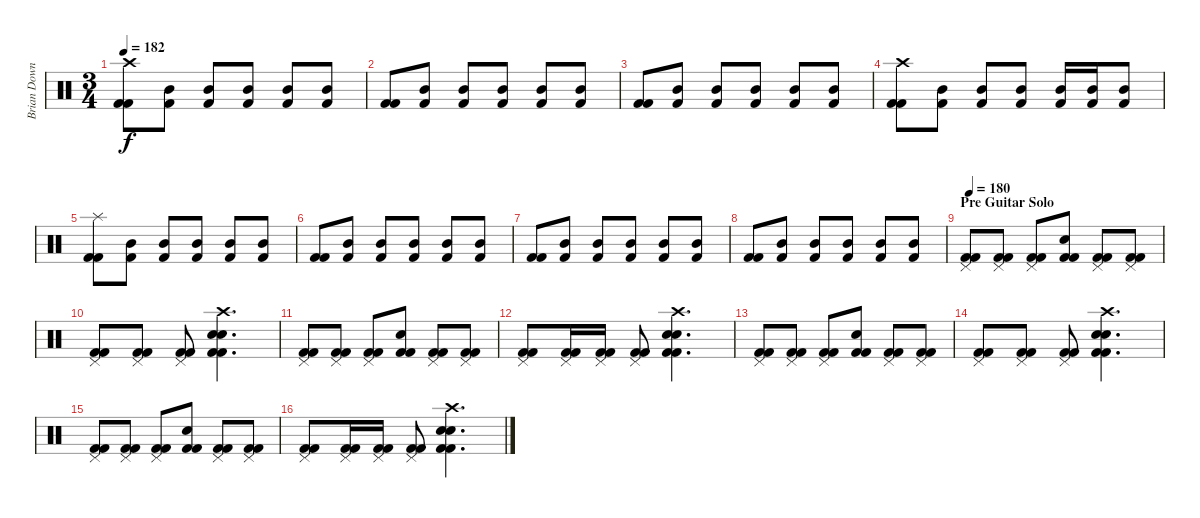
\track ("Brian Downey" "Brian Down") {instrument percussion}
\staff {score}
\articulation defaults
\ts (3 4)
\tempo 182
\clef neutral
\ks c
("Crash high (hit)" "Kick (hit) 2" "Kick (hit) 2").8{dy f} ("Mid Tom (hit)" "Kick (hit) 2").8 ("Mid Tom (hit)" "Kick (hit) 2").8 ("Mid Tom (hit)" "Kick (hit) 2").8 ("Mid Tom (hit)" "Kick (hit) 2").8 ("Mid Tom (hit)" "Kick (hit) 2").8 |
("Kick (hit) 2" "Kick (hit) 2").8 ("Mid Tom (hit)" "Kick (hit) 2").8 ("Mid Tom (hit)" "Kick (hit) 2").8 ("Mid Tom (hit)" "Kick (hit) 2").8 ("Mid Tom (hit)" "Kick (hit) 2").8 ("Mid Tom (hit)" "Kick (hit) 2").8 |
("Kick (hit) 2" "Kick (hit) 2").8 ("Mid Tom (hit)" "Kick (hit) 2").8 ("Mid Tom (hit)" "Kick (hit) 2").8 ("Mid Tom (hit)" "Kick (hit) 2").8 ("Mid Tom (hit)" "Kick (hit) 2").8 ("Mid Tom (hit)" "Kick (hit) 2").8 |
("Crash high (hit)" "Kick (hit) 2" "Kick (hit) 2").8 ("Mid Tom (hit)" "Kick (hit) 2").8 ("Mid Tom (hit)" "Kick (hit) 2").8 ("Mid Tom (hit)" "Kick (hit) 2").8 ("Mid Tom (hit)" "Kick (hit) 2").16 ("Mid Tom (hit)" "Kick (hit) 2").16 ("Mid Tom (hit)" "Kick (hit) 2").8 |
("Splash (hit)" "Kick (hit) 2" "Kick (hit) 2").8 ("Mid Tom (hit)" "Kick (hit) 2").8 ("Mid Tom (hit)" "Kick (hit) 2").8 ("Mid Tom (hit)" "Kick (hit) 2").8 ("Mid Tom (hit)" "Kick (hit) 2").8 ("Mid Tom (hit)" "Kick (hit) 2").8 |
("Kick (hit) 2" "Kick (hit) 2").8 ("Mid Tom (hit)" "Kick (hit) 2").8 ("Mid Tom (hit)" "Kick (hit) 2").8 ("Mid Tom (hit)" "Kick (hit) 2").8 ("Mid Tom (hit)" "Kick (hit) 2").8 ("Mid Tom (hit)" "Kick (hit) 2").8 |
("Kick (hit) 2" "Kick (hit) 2").8 ("Mid Tom (hit)" "Kick (hit) 2").8 ("Mid Tom (hit)" "Kick (hit) 2").8 ("Mid Tom (hit)" "Kick (hit) 2").8 ("Mid Tom (hit)" "Kick (hit) 2").8 ("Mid Tom (hit)" "Kick (hit) 2").8 |
("Kick (hit) 2" "Kick (hit) 2").8 ("Mid Tom (hit)" "Kick (hit) 2").8 ("Mid Tom (hit)" "Kick (hit) 2").8 ("Mid Tom (hit)" "Kick (hit) 2").8 ("Mid Tom (hit)" "Kick (hit) 2").8 ("Mid Tom (hit)" "Kick (hit) 2").8 |
\section ("" "Pre Guitar Solo")
\tempo 180
("Pedal Hi-Hat (hit)" "Kick (hit) 2" "Kick (hit) 2").8 ("Pedal Hi-Hat (hit)" "Kick (hit) 2" "Kick (hit) 2").8 ("Pedal Hi-Hat (hit)" "Kick (hit) 2" "Kick (hit) 2").8 ("Snare (hit) 2" "Kick (hit) 2" "Kick (hit) 2").8 ("Pedal Hi-Hat (hit)" "Kick (hit) 2" "Kick (hit) 2").8 ("Pedal Hi-Hat (hit)" "Kick (hit) 2" "Kick (hit) 2").8 |
("Pedal Hi-Hat (hit)" "Kick (hit) 2" "Kick (hit) 2").8 ("Pedal Hi-Hat (hit)" "Kick (hit) 2" "Kick (hit) 2").8 ("Pedal Hi-Hat (hit)" "Kick (hit) 2" "Kick (hit) 2").8 ("Crash high (hit)" "Electric Snare (hit)" "Snare (hit) 2" "Kick (hit) 2" "Kick (hit) 2").4{d} |
("Pedal Hi-Hat (hit)" "Kick (hit) 2" "Kick (hit) 2").8 ("Pedal Hi-Hat (hit)" "Kick (hit) 2" "Kick (hit) 2").8 ("Pedal Hi-Hat (hit)" "Kick (hit) 2" "Kick (hit) 2").8 ("Snare (hit) 2" "Kick (hit) 2" "Kick (hit) 2").8 ("Pedal Hi-Hat (hit)" "Kick (hit) 2" "Kick (hit) 2").8 ("Pedal Hi-Hat (hit)" "Kick (hit) 2" "Kick (hit) 2").8 |
("Pedal Hi-Hat (hit)" "Kick (hit) 2" "Kick (hit) 2").8 ("Pedal Hi-Hat (hit)" "Kick (hit) 2" "Kick (hit) 2").16 ("Pedal Hi-Hat (hit)" "Kick (hit) 2" "Kick (hit) 2").16 ("Pedal Hi-Hat (hit)" "Kick (hit) 2" "Kick (hit) 2").8 ("Crash high (hit)" "Electric Snare (hit)" "Snare (hit) 2" "Kick (hit) 2" "Kick (hit) 2").4{d} |
("Pedal Hi-Hat (hit)" "Kick (hit) 2" "Kick (hit) 2").8 ("Pedal Hi-Hat (hit)" "Kick (hit) 2" "Kick (hit) 2").8 ("Pedal Hi-Hat (hit)" "Kick (hit) 2" "Kick (hit) 2").8 ("Snare (hit) 2" "Kick (hit) 2" "Kick (hit) 2").8 ("Pedal Hi-Hat (hit)" "Kick (hit) 2" "Kick (hit) 2").8 ("Pedal Hi-Hat (hit)" "Kick (hit) 2" "Kick (hit) 2").8 |
("Pedal Hi-Hat (hit)" "Kick (hit) 2" "Kick (hit) 2").8 ("Pedal Hi-Hat (hit)" "Kick (hit) 2" "Kick (hit) 2").8 ("Pedal Hi-Hat (hit)" "Kick (hit) 2" "Kick (hit) 2").8 ("Crash high (hit)" "Electric Snare (hit)" "Snare (hit) 2" "Kick (hit) 2" "Kick (hit) 2").4{d} |
("Pedal Hi-Hat (hit)" "Kick (hit) 2" "Kick (hit) 2").8 ("Pedal Hi-Hat (hit)" "Kick (hit) 2" "Kick (hit) 2").8 ("Pedal Hi-Hat (hit)" "Kick (hit) 2" "Kick (hit) 2").8 ("Snare (hit) 2" "Kick (hit) 2" "Kick (hit) 2").8 ("Pedal Hi-Hat (hit)" "Kick (hit) 2" "Kick (hit) 2").8 ("Pedal Hi-Hat (hit)" "Kick (hit) 2" "Kick (hit) 2").8 |
("Pedal Hi-Hat (hit)" "Kick (hit) 2" "Kick (hit) 2").8 ("Pedal Hi-Hat (hit)" "Kick (hit) 2" "Kick (hit) 2").16 ("Pedal Hi-Hat (hit)" "Kick (hit) 2" "Kick (hit) 2").16 ("Pedal Hi-Hat (hit)" "Kick (hit) 2" "Kick (hit) 2").8 ("Crash high (hit)" "Electric Snare (hit)" "Snare (hit) 2" "Kick (hit) 2" "Kick (hit) 2").4{d}
